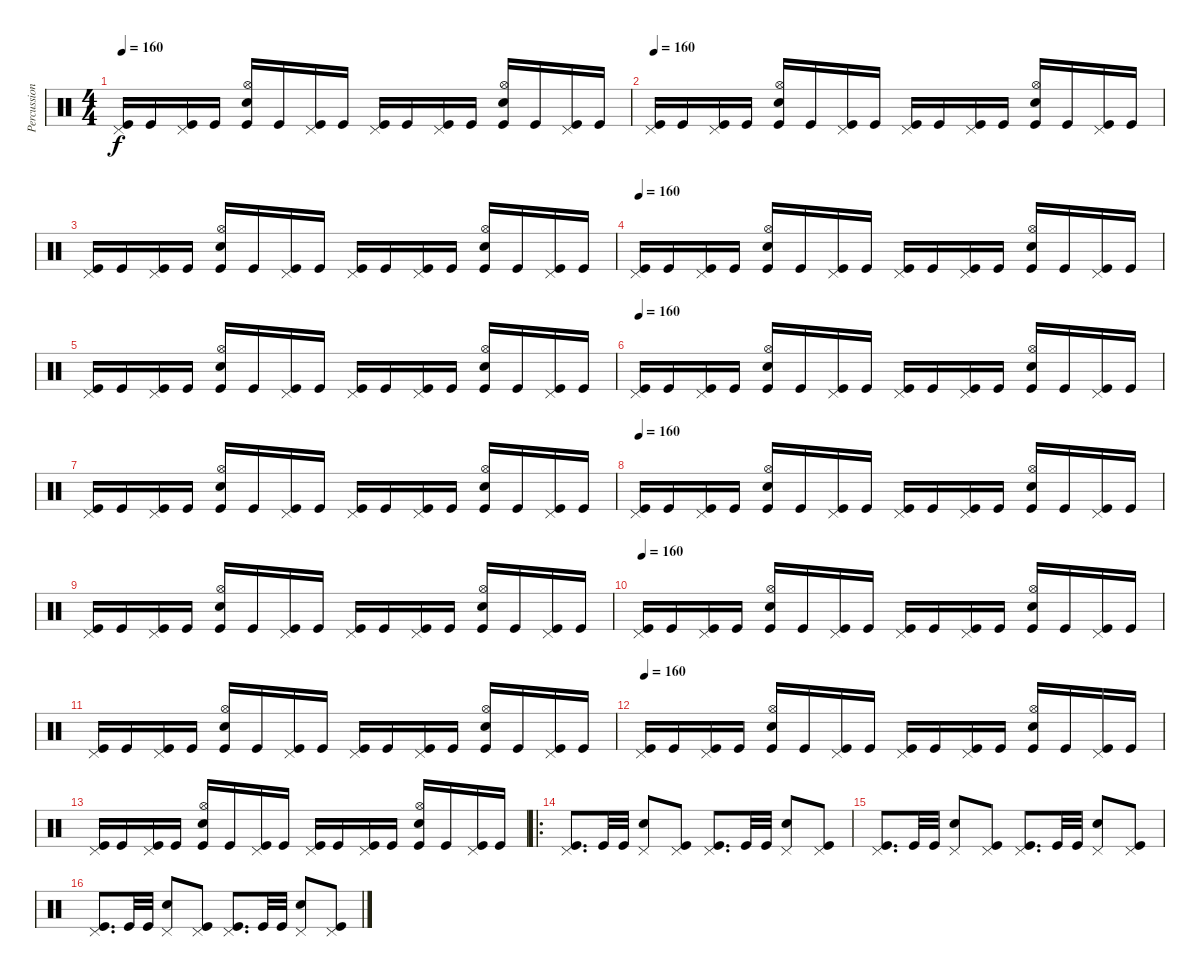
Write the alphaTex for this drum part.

\track ("Percussion" "Percussion") {instrument percussion}
\staff {score}
\articulation defaults
\ts (4 4)
\tempo 160
\clef neutral
\ks c
("Pedal Hi-Hat (hit)" "Kick (hit)").16{dy f} "Kick (hit)".16 ("Pedal Hi-Hat (hit)" "Kick (hit)").16 "Kick (hit)".16 ("Hi-Hat (open)" "Electric Snare (hit)" "Kick (hit)").16 "Kick (hit)".16 ("Pedal Hi-Hat (hit)" "Kick (hit)").16 "Kick (hit)".16 ("Pedal Hi-Hat (hit)" "Kick (hit)").16 "Kick (hit)".16 ("Pedal Hi-Hat (hit)" "Kick (hit)").16 "Kick (hit)".16 ("Hi-Hat (open)" "Electric Snare (hit)" "Kick (hit)").16 "Kick (hit)".16 ("Pedal Hi-Hat (hit)" "Kick (hit)").16 "Kick (hit)".16 |
\tempo 160
("Pedal Hi-Hat (hit)" "Kick (hit)").16 "Kick (hit)".16 ("Pedal Hi-Hat (hit)" "Kick (hit)").16 "Kick (hit)".16 ("Hi-Hat (open)" "Electric Snare (hit)" "Kick (hit)").16 "Kick (hit)".16 ("Pedal Hi-Hat (hit)" "Kick (hit)").16 "Kick (hit)".16 ("Pedal Hi-Hat (hit)" "Kick (hit)").16 "Kick (hit)".16 ("Pedal Hi-Hat (hit)" "Kick (hit)").16 "Kick (hit)".16 ("Hi-Hat (open)" "Electric Snare (hit)" "Kick (hit)").16 "Kick (hit)".16 ("Pedal Hi-Hat (hit)" "Kick (hit)").16 "Kick (hit)".16 |
("Pedal Hi-Hat (hit)" "Kick (hit)").16 "Kick (hit)".16 ("Pedal Hi-Hat (hit)" "Kick (hit)").16 "Kick (hit)".16 ("Hi-Hat (open)" "Electric Snare (hit)" "Kick (hit)").16 "Kick (hit)".16 ("Pedal Hi-Hat (hit)" "Kick (hit)").16 "Kick (hit)".16 ("Pedal Hi-Hat (hit)" "Kick (hit)").16 "Kick (hit)".16 ("Pedal Hi-Hat (hit)" "Kick (hit)").16 "Kick (hit)".16 ("Hi-Hat (open)" "Electric Snare (hit)" "Kick (hit)").16 "Kick (hit)".16 ("Pedal Hi-Hat (hit)" "Kick (hit)").16 "Kick (hit)".16 |
\tempo 160
("Pedal Hi-Hat (hit)" "Kick (hit)").16 "Kick (hit)".16 ("Pedal Hi-Hat (hit)" "Kick (hit)").16 "Kick (hit)".16 ("Hi-Hat (open)" "Electric Snare (hit)" "Kick (hit)").16 "Kick (hit)".16 ("Pedal Hi-Hat (hit)" "Kick (hit)").16 "Kick (hit)".16 ("Pedal Hi-Hat (hit)" "Kick (hit)").16 "Kick (hit)".16 ("Pedal Hi-Hat (hit)" "Kick (hit)").16 "Kick (hit)".16 ("Hi-Hat (open)" "Electric Snare (hit)" "Kick (hit)").16 "Kick (hit)".16 ("Pedal Hi-Hat (hit)" "Kick (hit)").16 "Kick (hit)".16 |
("Pedal Hi-Hat (hit)" "Kick (hit)").16 "Kick (hit)".16 ("Pedal Hi-Hat (hit)" "Kick (hit)").16 "Kick (hit)".16 ("Hi-Hat (open)" "Electric Snare (hit)" "Kick (hit)").16 "Kick (hit)".16 ("Pedal Hi-Hat (hit)" "Kick (hit)").16 "Kick (hit)".16 ("Pedal Hi-Hat (hit)" "Kick (hit)").16 "Kick (hit)".16 ("Pedal Hi-Hat (hit)" "Kick (hit)").16 "Kick (hit)".16 ("Hi-Hat (open)" "Electric Snare (hit)" "Kick (hit)").16 "Kick (hit)".16 ("Pedal Hi-Hat (hit)" "Kick (hit)").16 "Kick (hit)".16 |
\tempo 160
("Pedal Hi-Hat (hit)" "Kick (hit)").16 "Kick (hit)".16 ("Pedal Hi-Hat (hit)" "Kick (hit)").16 "Kick (hit)".16 ("Hi-Hat (open)" "Electric Snare (hit)" "Kick (hit)").16 "Kick (hit)".16 ("Pedal Hi-Hat (hit)" "Kick (hit)").16 "Kick (hit)".16 ("Pedal Hi-Hat (hit)" "Kick (hit)").16 "Kick (hit)".16 ("Pedal Hi-Hat (hit)" "Kick (hit)").16 "Kick (hit)".16 ("Hi-Hat (open)" "Electric Snare (hit)" "Kick (hit)").16 "Kick (hit)".16 ("Pedal Hi-Hat (hit)" "Kick (hit)").16 "Kick (hit)".16 |
("Pedal Hi-Hat (hit)" "Kick (hit)").16 "Kick (hit)".16 ("Pedal Hi-Hat (hit)" "Kick (hit)").16 "Kick (hit)".16 ("Hi-Hat (open)" "Electric Snare (hit)" "Kick (hit)").16 "Kick (hit)".16 ("Pedal Hi-Hat (hit)" "Kick (hit)").16 "Kick (hit)".16 ("Pedal Hi-Hat (hit)" "Kick (hit)").16 "Kick (hit)".16 ("Pedal Hi-Hat (hit)" "Kick (hit)").16 "Kick (hit)".16 ("Hi-Hat (open)" "Electric Snare (hit)" "Kick (hit)").16 "Kick (hit)".16 ("Pedal Hi-Hat (hit)" "Kick (hit)").16 "Kick (hit)".16 |
\tempo 160
("Pedal Hi-Hat (hit)" "Kick (hit)").16 "Kick (hit)".16 ("Pedal Hi-Hat (hit)" "Kick (hit)").16 "Kick (hit)".16 ("Hi-Hat (open)" "Electric Snare (hit)" "Kick (hit)").16 "Kick (hit)".16 ("Pedal Hi-Hat (hit)" "Kick (hit)").16 "Kick (hit)".16 ("Pedal Hi-Hat (hit)" "Kick (hit)").16 "Kick (hit)".16 ("Pedal Hi-Hat (hit)" "Kick (hit)").16 "Kick (hit)".16 ("Hi-Hat (open)" "Electric Snare (hit)" "Kick (hit)").16 "Kick (hit)".16 ("Pedal Hi-Hat (hit)" "Kick (hit)").16 "Kick (hit)".16 |
("Pedal Hi-Hat (hit)" "Kick (hit)").16 "Kick (hit)".16 ("Pedal Hi-Hat (hit)" "Kick (hit)").16 "Kick (hit)".16 ("Hi-Hat (open)" "Electric Snare (hit)" "Kick (hit)").16 "Kick (hit)".16 ("Pedal Hi-Hat (hit)" "Kick (hit)").16 "Kick (hit)".16 ("Pedal Hi-Hat (hit)" "Kick (hit)").16 "Kick (hit)".16 ("Pedal Hi-Hat (hit)" "Kick (hit)").16 "Kick (hit)".16 ("Hi-Hat (open)" "Electric Snare (hit)" "Kick (hit)").16 "Kick (hit)".16 ("Pedal Hi-Hat (hit)" "Kick (hit)").16 "Kick (hit)".16 |
\tempo 160
("Pedal Hi-Hat (hit)" "Kick (hit)").16 "Kick (hit)".16 ("Pedal Hi-Hat (hit)" "Kick (hit)").16 "Kick (hit)".16 ("Hi-Hat (open)" "Electric Snare (hit)" "Kick (hit)").16 "Kick (hit)".16 ("Pedal Hi-Hat (hit)" "Kick (hit)").16 "Kick (hit)".16 ("Pedal Hi-Hat (hit)" "Kick (hit)").16 "Kick (hit)".16 ("Pedal Hi-Hat (hit)" "Kick (hit)").16 "Kick (hit)".16 ("Hi-Hat (open)" "Electric Snare (hit)" "Kick (hit)").16 "Kick (hit)".16 ("Pedal Hi-Hat (hit)" "Kick (hit)").16 "Kick (hit)".16 |
("Pedal Hi-Hat (hit)" "Kick (hit)").16 "Kick (hit)".16 ("Pedal Hi-Hat (hit)" "Kick (hit)").16 "Kick (hit)".16 ("Hi-Hat (open)" "Electric Snare (hit)" "Kick (hit)").16 "Kick (hit)".16 ("Pedal Hi-Hat (hit)" "Kick (hit)").16 "Kick (hit)".16 ("Pedal Hi-Hat (hit)" "Kick (hit)").16 "Kick (hit)".16 ("Pedal Hi-Hat (hit)" "Kick (hit)").16 "Kick (hit)".16 ("Hi-Hat (open)" "Electric Snare (hit)" "Kick (hit)").16 "Kick (hit)".16 ("Pedal Hi-Hat (hit)" "Kick (hit)").16 "Kick (hit)".16 |
\tempo 160
("Pedal Hi-Hat (hit)" "Kick (hit)").16 "Kick (hit)".16 ("Pedal Hi-Hat (hit)" "Kick (hit)").16 "Kick (hit)".16 ("Hi-Hat (open)" "Electric Snare (hit)" "Kick (hit)").16 "Kick (hit)".16 ("Pedal Hi-Hat (hit)" "Kick (hit)").16 "Kick (hit)".16 ("Pedal Hi-Hat (hit)" "Kick (hit)").16 "Kick (hit)".16 ("Pedal Hi-Hat (hit)" "Kick (hit)").16 "Kick (hit)".16 ("Hi-Hat (open)" "Electric Snare (hit)" "Kick (hit)").16 "Kick (hit)".16 ("Pedal Hi-Hat (hit)" "Kick (hit)").16 "Kick (hit)".16 |
("Pedal Hi-Hat (hit)" "Kick (hit)").16 "Kick (hit)".16 ("Pedal Hi-Hat (hit)" "Kick (hit)").16 "Kick (hit)".16 ("Hi-Hat (open)" "Electric Snare (hit)" "Kick (hit)").16 "Kick (hit)".16 ("Pedal Hi-Hat (hit)" "Kick (hit)").16 "Kick (hit)".16 ("Pedal Hi-Hat (hit)" "Kick (hit)").16 "Kick (hit)".16 ("Pedal Hi-Hat (hit)" "Kick (hit)").16 "Kick (hit)".16 ("Hi-Hat (open)" "Electric Snare (hit)" "Kick (hit)").16 "Kick (hit)".16 ("Pedal Hi-Hat (hit)" "Kick (hit)").16 "Kick (hit)".16 |
\ro
("Pedal Hi-Hat (hit)" "Kick (hit)").8{d} "Kick (hit)".32 "Kick (hit)".32 ("Pedal Hi-Hat (hit)" "Electric Snare (hit)").8 ("Pedal Hi-Hat (hit)" "Kick (hit)").8 ("Pedal Hi-Hat (hit)" "Kick (hit)").8{d} "Kick (hit)".32 "Kick (hit)".32 ("Pedal Hi-Hat (hit)" "Electric Snare (hit)").8 ("Pedal Hi-Hat (hit)" "Kick (hit)").8 |
("Pedal Hi-Hat (hit)" "Kick (hit)").8{d} "Kick (hit)".32 "Kick (hit)".32 ("Pedal Hi-Hat (hit)" "Electric Snare (hit)").8 ("Pedal Hi-Hat (hit)" "Kick (hit)").8 ("Pedal Hi-Hat (hit)" "Kick (hit)").8{d} "Kick (hit)".32 "Kick (hit)".32 ("Pedal Hi-Hat (hit)" "Electric Snare (hit)").8 ("Pedal Hi-Hat (hit)" "Kick (hit)").8 |
("Pedal Hi-Hat (hit)" "Kick (hit)").8{d} "Kick (hit)".32 "Kick (hit)".32 ("Pedal Hi-Hat (hit)" "Electric Snare (hit)").8 ("Pedal Hi-Hat (hit)" "Kick (hit)").8 ("Pedal Hi-Hat (hit)" "Kick (hit)").8{d} "Kick (hit)".32 "Kick (hit)".32 ("Pedal Hi-Hat (hit)" "Electric Snare (hit)").8 ("Pedal Hi-Hat (hit)" "Kick (hit)").8
